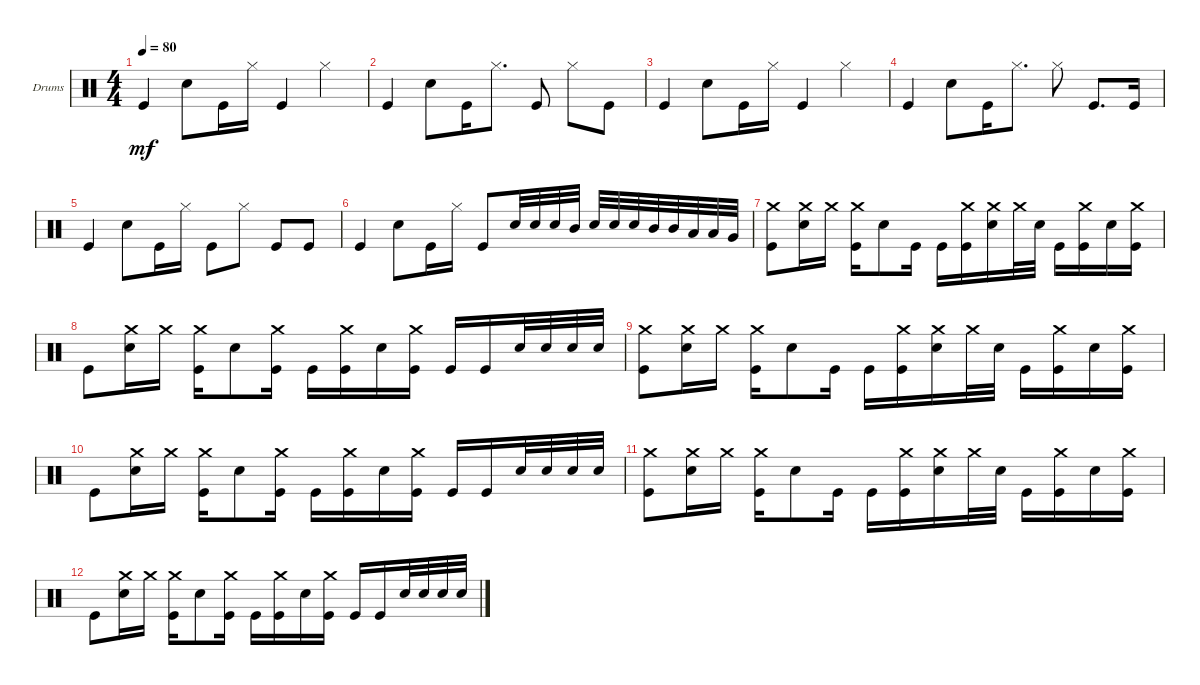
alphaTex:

\defaultSystemsLayout 4
\bracketExtendMode groupsimilarinstruments
\firstSystemTrackNameOrientation horizontal
\otherSystemsTrackNameOrientation horizontal
\track ("Drumkit" "Drums") {instrument percussion}
\staff {score}
\articulation defaults
\ts (4 4)
\tempo 80
\clef neutral
\ks c "Kick (hit)".4{dy mf} "Snare (hit) 2".8 "Kick (hit)".16 "Hi-Hat (closed)".16 "Kick (hit)".4 "Hi-Hat (closed)".4
|
"Kick (hit)".4 "Snare (hit) 2".8 "Kick (hit)".16 "Hi-Hat (closed)".8{d} "Kick (hit)".8 "Hi-Hat (closed)".8 "Kick (hit)".8 |
"Kick (hit)".4 "Snare (hit) 2".8 "Kick (hit)".16 "Hi-Hat (closed)".16 "Kick (hit)".4 "Hi-Hat (closed)".4 |
"Kick (hit)".4 "Snare (hit) 2".8 "Kick (hit)".16 "Hi-Hat (closed)".8{d} "Hi-Hat (closed)".8 "Kick (hit)".8{d} "Kick (hit)".16 |
"Kick (hit)".4 "Snare (hit) 2".8 "Kick (hit)".16 "Hi-Hat (closed)".16 "Kick (hit)".8 "Hi-Hat (closed)".8 "Kick (hit)".8 "Kick (hit)".8 |
"Kick (hit)".4 "Snare (hit) 2".8 "Kick (hit)".16 "Hi-Hat (closed)".16 "Kick (hit)".8 "Snare (hit) 2".32 "Snare (hit) 2".32 "Snare (hit) 2".32 "Mid Tom (hit)".32 "Snare (hit) 2".32 "Snare (hit) 2".32 "Snare (hit) 2".32 "Mid Tom (hit)".32 "Mid Tom (hit)".32 "Low Tom (hit)".32 "Low Tom (hit)".32 "Very Low Tom (hit)".32 |
("Kick (hit)" "Crash medium (hit)").8 ("Snare (hit) 2" "Crash medium (hit)").16 "Crash medium (hit)".16 ("Kick (hit)" "Crash medium (hit)").16 "Snare (hit) 2".8 "Kick (hit)".16 "Kick (hit)".16 ("Kick (hit)" "Crash medium (hit)").16 ("Snare (hit) 2" "Crash medium (hit)").16 "Crash medium (hit)".32 "Snare (hit) 2".32 "Kick (hit)".16 ("Kick (hit)" "Crash medium (hit)").16 "Snare (hit) 2".16 ("Kick (hit)" "Crash medium (hit)").16 |
"Kick (hit)".8 ("Snare (hit) 2" "Crash medium (hit)").16 "Crash medium (hit)".16 ("Kick (hit)" "Crash medium (hit)").16 "Snare (hit) 2".8 ("Kick (hit)" "Crash medium (hit)").16 "Kick (hit)".16 ("Kick (hit)" "Crash medium (hit)").16 "Snare (hit) 2".16 ("Kick (hit)" "Crash medium (hit)").16 "Kick (hit)".16 "Kick (hit)".16 "Snare (hit) 2".32 "Snare (hit) 2".32 "Snare (hit) 2".32 "Snare (hit) 2".32 |
("Kick (hit)" "Crash medium (hit)").8 ("Snare (hit) 2" "Crash medium (hit)").16 "Crash medium (hit)".16 ("Kick (hit)" "Crash medium (hit)").16 "Snare (hit) 2".8 "Kick (hit)".16 "Kick (hit)".16 ("Kick (hit)" "Crash medium (hit)").16 ("Snare (hit) 2" "Crash medium (hit)").16 "Crash medium (hit)".32 "Snare (hit) 2".32 "Kick (hit)".16 ("Kick (hit)" "Crash medium (hit)").16 "Snare (hit) 2".16 ("Kick (hit)" "Crash medium (hit)").16 |
"Kick (hit)".8 ("Snare (hit) 2" "Crash medium (hit)").16 "Crash medium (hit)".16 ("Kick (hit)" "Crash medium (hit)").16 "Snare (hit) 2".8 ("Kick (hit)" "Crash medium (hit)").16 "Kick (hit)".16 ("Kick (hit)" "Crash medium (hit)").16 "Snare (hit) 2".16 ("Kick (hit)" "Crash medium (hit)").16 "Kick (hit)".16 "Kick (hit)".16 "Snare (hit) 2".32 "Snare (hit) 2".32 "Snare (hit) 2".32 "Snare (hit) 2".32 |
("Kick (hit)" "Crash medium (hit)").8 ("Snare (hit) 2" "Crash medium (hit)").16 "Crash medium (hit)".16 ("Kick (hit)" "Crash medium (hit)").16 "Snare (hit) 2".8 "Kick (hit)".16 "Kick (hit)".16 ("Kick (hit)" "Crash medium (hit)").16 ("Snare (hit) 2" "Crash medium (hit)").16 "Crash medium (hit)".32 "Snare (hit) 2".32 "Kick (hit)".16 ("Kick (hit)" "Crash medium (hit)").16 "Snare (hit) 2".16 ("Kick (hit)" "Crash medium (hit)").16 |
"Kick (hit)".8 ("Snare (hit) 2" "Crash medium (hit)").16 "Crash medium (hit)".16 ("Kick (hit)" "Crash medium (hit)").16 "Snare (hit) 2".8 ("Kick (hit)" "Crash medium (hit)").16 "Kick (hit)".16 ("Kick (hit)" "Crash medium (hit)").16 "Snare (hit) 2".16 ("Kick (hit)" "Crash medium (hit)").16 "Kick (hit)".16 "Kick (hit)".16 "Snare (hit) 2".32 "Snare (hit) 2".32 "Snare (hit) 2".32 "Snare (hit) 2".32
